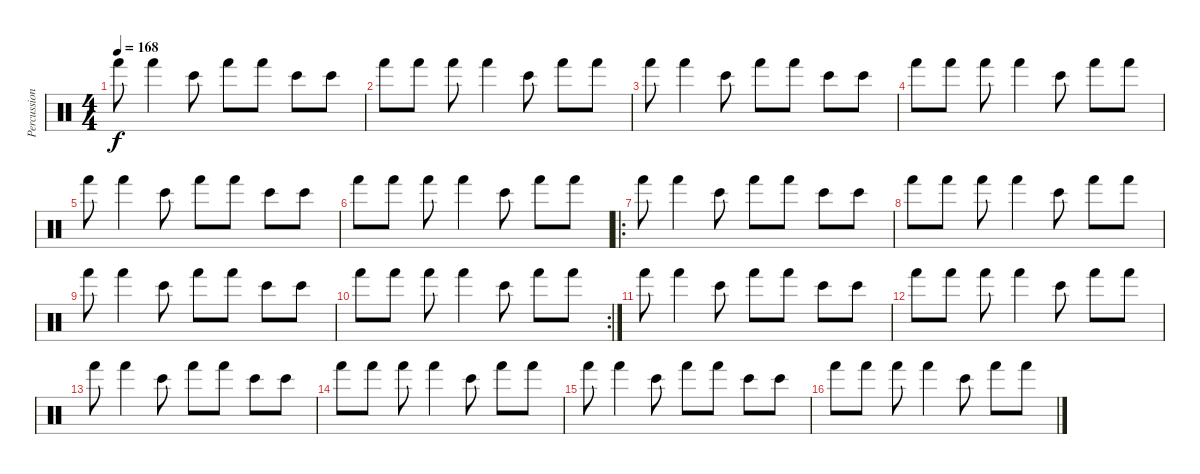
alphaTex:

\track ("Percussions" "Percussion") {instrument percussion}
\staff {score}
\articulation defaults
\ts (4 4)
\tempo 168
\clef neutral
\ks c "Hand (hit)".8{dy f} "Hand (hit)".4 "Bongo High (hit)".8 "Hand (hit)".8 "Hand (hit)".8 "Bongo High (hit)".8 "Bongo High (hit)".8
|
"Hand (hit)".8 "Hand (hit)".8 "Hand (hit)".8 "Hand (hit)".4 "Bongo High (hit)".8 "Hand (hit)".8 "Hand (hit)".8 |
"Hand (hit)".8 "Hand (hit)".4 "Bongo High (hit)".8 "Hand (hit)".8 "Hand (hit)".8 "Bongo High (hit)".8 "Bongo High (hit)".8 |
"Hand (hit)".8 "Hand (hit)".8 "Hand (hit)".8 "Hand (hit)".4 "Bongo High (hit)".8 "Hand (hit)".8 "Hand (hit)".8 |
"Hand (hit)".8 "Hand (hit)".4 "Bongo High (hit)".8 "Hand (hit)".8 "Hand (hit)".8 "Bongo High (hit)".8 "Bongo High (hit)".8 |
"Hand (hit)".8 "Hand (hit)".8 "Hand (hit)".8 "Hand (hit)".4 "Bongo High (hit)".8 "Hand (hit)".8 "Hand (hit)".8 |
\ro "Hand (hit)".8 "Hand (hit)".4 "Bongo High (hit)".8 "Hand (hit)".8 "Hand (hit)".8 "Bongo High (hit)".8 "Bongo High (hit)".8
|
"Hand (hit)".8 "Hand (hit)".8 "Hand (hit)".8 "Hand (hit)".4 "Bongo High (hit)".8 "Hand (hit)".8 "Hand (hit)".8 |
"Hand (hit)".8 "Hand (hit)".4 "Bongo High (hit)".8 "Hand (hit)".8 "Hand (hit)".8 "Bongo High (hit)".8 "Bongo High (hit)".8 |
\rc 2 "Hand (hit)".8 "Hand (hit)".8 "Hand (hit)".8 "Hand (hit)".4 "Bongo High (hit)".8 "Hand (hit)".8 "Hand (hit)".8
|
"Hand (hit)".8 "Hand (hit)".4 "Bongo High (hit)".8 "Hand (hit)".8 "Hand (hit)".8 "Bongo High (hit)".8 "Bongo High (hit)".8 |
"Hand (hit)".8 "Hand (hit)".8 "Hand (hit)".8 "Hand (hit)".4 "Bongo High (hit)".8 "Hand (hit)".8 "Hand (hit)".8 |
"Hand (hit)".8 "Hand (hit)".4 "Bongo High (hit)".8 "Hand (hit)".8 "Hand (hit)".8 "Bongo High (hit)".8 "Bongo High (hit)".8 |
"Hand (hit)".8 "Hand (hit)".8 "Hand (hit)".8 "Hand (hit)".4 "Bongo High (hit)".8 "Hand (hit)".8 "Hand (hit)".8 |
"Hand (hit)".8 "Hand (hit)".4 "Bongo High (hit)".8 "Hand (hit)".8 "Hand (hit)".8 "Bongo High (hit)".8 "Bongo High (hit)".8 |
"Hand (hit)".8 "Hand (hit)".8 "Hand (hit)".8 "Hand (hit)".4 "Bongo High (hit)".8 "Hand (hit)".8 "Hand (hit)".8
